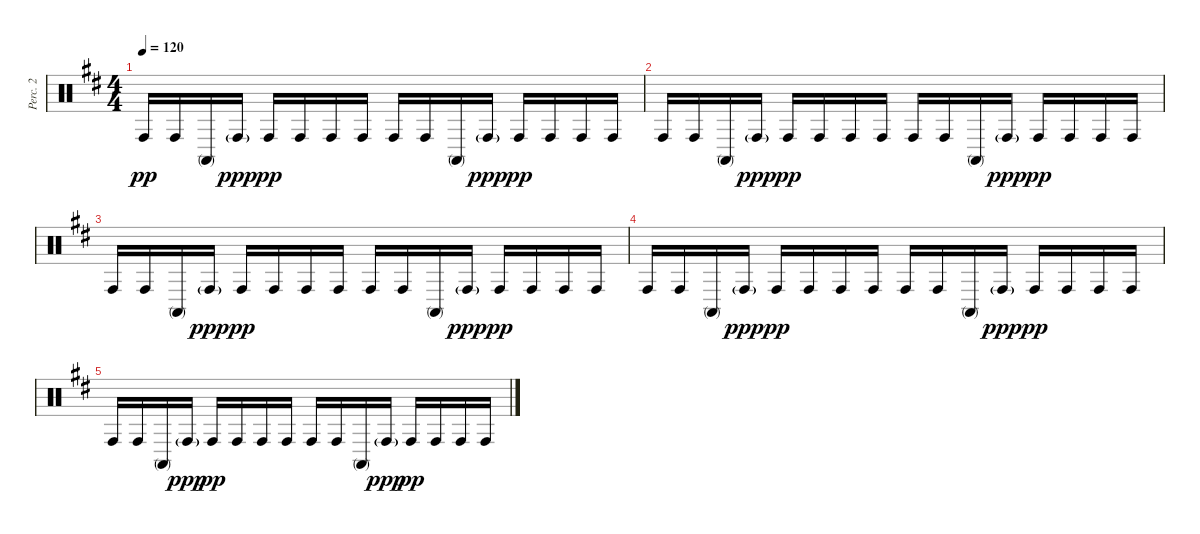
\track ("Perc. 2" "Perc. 2") {instrument percussion}
\staff {score}
\articulation defaults
\ts (4 4)
\tempo 120
\clef neutral
\ks d "Conga high (hit)".16{dy pp} "Conga high (hit)".16 "Conga high (mute)".16 "Conga high (hit)"{g}.16{dy ppp} "Conga high (hit)".16{dy pp} "Conga high (hit)".16 "Conga high (hit)".16 "Conga high (hit)".16 "Conga high (hit)".16 "Conga high (hit)".16 "Conga high (mute)".16 "Conga high (hit)"{g}.16{dy ppp} "Conga high (hit)".16{dy pp} "Conga high (hit)".16 "Conga high (hit)".16 "Conga high (hit)".16
|
"Conga high (hit)".16 "Conga high (hit)".16 "Conga high (mute)".16 "Conga high (hit)"{g}.16{dy ppp} "Conga high (hit)".16{dy pp} "Conga high (hit)".16 "Conga high (hit)".16 "Conga high (hit)".16 "Conga high (hit)".16 "Conga high (hit)".16 "Conga high (mute)".16 "Conga high (hit)"{g}.16{dy ppp} "Conga high (hit)".16{dy pp} "Conga high (hit)".16 "Conga high (hit)".16 "Conga high (hit)".16 |
"Conga high (hit)".16 "Conga high (hit)".16 "Conga high (mute)".16 "Conga high (hit)"{g}.16{dy ppp} "Conga high (hit)".16{dy pp} "Conga high (hit)".16 "Conga high (hit)".16 "Conga high (hit)".16 "Conga high (hit)".16 "Conga high (hit)".16 "Conga high (mute)".16 "Conga high (hit)"{g}.16{dy ppp} "Conga high (hit)".16{dy pp} "Conga high (hit)".16 "Conga high (hit)".16 "Conga high (hit)".16 |
"Conga high (hit)".16 "Conga high (hit)".16 "Conga high (mute)".16 "Conga high (hit)"{g}.16{dy ppp} "Conga high (hit)".16{dy pp} "Conga high (hit)".16 "Conga high (hit)".16 "Conga high (hit)".16 "Conga high (hit)".16 "Conga high (hit)".16 "Conga high (mute)".16 "Conga high (hit)"{g}.16{dy ppp} "Conga high (hit)".16{dy pp} "Conga high (hit)".16 "Conga high (hit)".16 "Conga high (hit)".16 |
"Conga high (hit)".16 "Conga high (hit)".16 "Conga high (mute)".16 "Conga high (hit)"{g}.16{dy ppp} "Conga high (hit)".16{dy pp} "Conga high (hit)".16 "Conga high (hit)".16 "Conga high (hit)".16 "Conga high (hit)".16 "Conga high (hit)".16 "Conga high (mute)".16 "Conga high (hit)"{g}.16{dy ppp} "Conga high (hit)".16{dy pp} "Conga high (hit)".16 "Conga high (hit)".16 "Conga high (hit)".16
